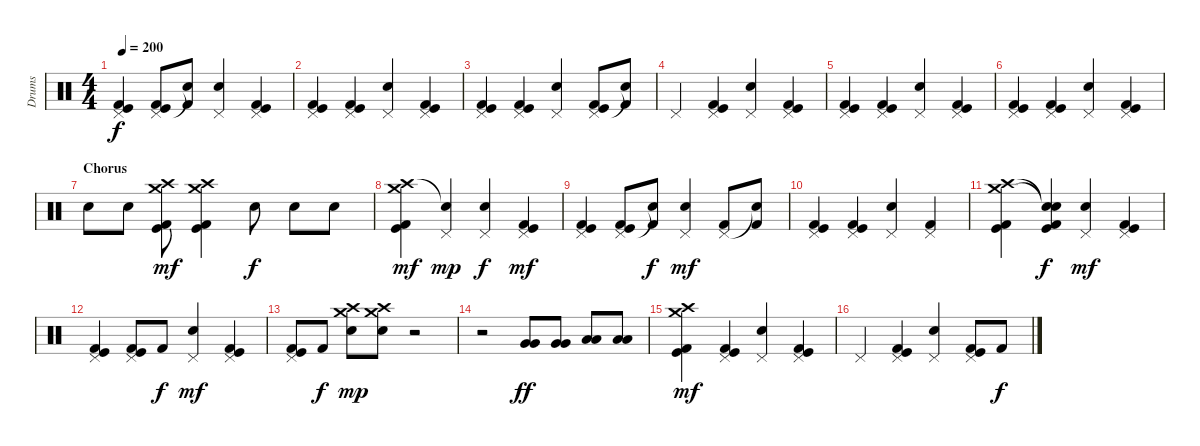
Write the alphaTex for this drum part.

\track ("Drums" "Drums") {instrument percussion}
\staff {score}
\articulation defaults
\ts (4 4)
\tempo 200
\clef neutral
\ks c
("Pedal Hi-Hat (hit)" "Kick (hit)" "Kick (hit) 2").4{dy f} ("Pedal Hi-Hat (hit)" "Kick (hit)" "Kick (hit) 2").8 ("Snare (hit)"{t} "Kick (hit) 2").8 ("Pedal Hi-Hat (hit)" "Snare (hit) 2").4 ("Pedal Hi-Hat (hit)" "Kick (hit)" "Kick (hit) 2").4 |
("Pedal Hi-Hat (hit)" "Kick (hit)" "Kick (hit) 2").4 ("Pedal Hi-Hat (hit)" "Kick (hit)" "Kick (hit) 2").4 ("Pedal Hi-Hat (hit)" "Snare (hit) 2").4 ("Pedal Hi-Hat (hit)" "Kick (hit)" "Kick (hit) 2").4 |
("Pedal Hi-Hat (hit)" "Kick (hit)" "Kick (hit) 2").4 ("Pedal Hi-Hat (hit)" "Kick (hit)" "Kick (hit) 2").4 ("Pedal Hi-Hat (hit)" "Snare (hit) 2").4 ("Pedal Hi-Hat (hit)" "Kick (hit)" "Kick (hit) 2").8 ("Snare (hit)"{t} "Kick (hit) 2").8 |
"Pedal Hi-Hat (hit)".4 ("Pedal Hi-Hat (hit)" "Kick (hit)" "Kick (hit) 2").4 ("Pedal Hi-Hat (hit)" "Snare (hit) 2").4 ("Pedal Hi-Hat (hit)" "Kick (hit)" "Kick (hit) 2").4 |
("Pedal Hi-Hat (hit)" "Kick (hit)" "Kick (hit) 2").4 ("Pedal Hi-Hat (hit)" "Kick (hit)" "Kick (hit) 2").4 ("Pedal Hi-Hat (hit)" "Snare (hit) 2").4 ("Pedal Hi-Hat (hit)" "Kick (hit)" "Kick (hit) 2").4 |
("Pedal Hi-Hat (hit)" "Kick (hit)" "Kick (hit) 2").4 ("Pedal Hi-Hat (hit)" "Kick (hit)" "Kick (hit) 2").4 ("Pedal Hi-Hat (hit)" "Snare (hit) 2").4 ("Pedal Hi-Hat (hit)" "Kick (hit)" "Kick (hit) 2").4 |
\section ("" "Chorus")
"Snare (hit) 2".8 "Snare (hit) 2".8 ("Crash high (hit)" "Crash medium (hit)" "Kick (hit)" "Kick (hit) 2").8{dy mf} ("Crash high (hit)" "Crash medium (hit)" "Kick (hit)" "Kick (hit) 2").4 "Snare (hit) 2".8{dy f} "Snare (hit) 2".8 "Snare (hit) 2".8 |
("Crash high (hit)" "Crash medium (hit)" "Kick (hit)" "Kick (hit) 2").4{dy mf} ("Snare (hit)"{t} "Pedal Hi-Hat (hit)").4{dy mp} ("Pedal Hi-Hat (hit)" "Snare (hit) 2").4{dy f} ("Pedal Hi-Hat (hit)" "Kick (hit)" "Kick (hit) 2").4{dy mf} |
("Pedal Hi-Hat (hit)" "Kick (hit)" "Kick (hit) 2").4 ("Pedal Hi-Hat (hit)" "Kick (hit)" "Kick (hit) 2").8 ("Snare (hit)"{t} "Kick (hit) 2").8{dy f} ("Pedal Hi-Hat (hit)" "Snare (hit) 2").4{dy mf} ("Pedal Hi-Hat (hit)" "Kick (hit) 2").8 ("Snare (hit)"{t} "Kick (hit) 2").8 |
("Pedal Hi-Hat (hit)" "Kick (hit)" "Kick (hit) 2").4 ("Pedal Hi-Hat (hit)" "Kick (hit)" "Kick (hit) 2").4 ("Pedal Hi-Hat (hit)" "Snare (hit) 2").4 ("Pedal Hi-Hat (hit)" "Kick (hit) 2").4 |
("Crash high (hit)" "Crash medium (hit)" "Kick (hit)" "Kick (hit) 2").4 ("Snare (hit)"{t} "Snare (hit)"{t} "Kick (hit)" "Kick (hit) 2").4{dy f} ("Pedal Hi-Hat (hit)" "Snare (hit) 2").4{dy mf} ("Pedal Hi-Hat (hit)" "Kick (hit)" "Kick (hit) 2").4 |
("Pedal Hi-Hat (hit)" "Kick (hit)" "Kick (hit) 2").4 ("Pedal Hi-Hat (hit)" "Kick (hit)" "Kick (hit) 2").8 "Kick (hit) 2".8{dy f} ("Pedal Hi-Hat (hit)" "Snare (hit) 2").4{dy mf} ("Pedal Hi-Hat (hit)" "Kick (hit)" "Kick (hit) 2").4 |
("Pedal Hi-Hat (hit)" "Kick (hit)" "Kick (hit) 2").8 "Kick (hit) 2".8{dy f} ("Crash high (hit)" "Crash medium (hit)" "Snare (hit) 2").8{dy mp} ("Crash high (hit)" "Crash medium (hit)" "Snare (hit) 2").8 r.2 |
r.2 ("Very Low Tom (hit)" "Very Low Tom (hit)").8{dy ff} ("Very Low Tom (hit)" "Very Low Tom (hit)").8 ("Low Tom (hit)" "Low Tom (hit)").8 ("Low Tom (hit)" "Low Tom (hit)").8 |
("Crash high (hit)" "Crash medium (hit)" "Kick (hit)" "Kick (hit) 2").4{dy mf} ("Pedal Hi-Hat (hit)" "Kick (hit)" "Kick (hit) 2").4 ("Pedal Hi-Hat (hit)" "Snare (hit) 2").4 ("Pedal Hi-Hat (hit)" "Kick (hit)" "Kick (hit) 2").4 |
"Pedal Hi-Hat (hit)".4 ("Pedal Hi-Hat (hit)" "Kick (hit)" "Kick (hit) 2").4 ("Pedal Hi-Hat (hit)" "Snare (hit) 2").4 ("Pedal Hi-Hat (hit)" "Kick (hit)" "Kick (hit) 2").8 "Kick (hit) 2".8{dy f}
